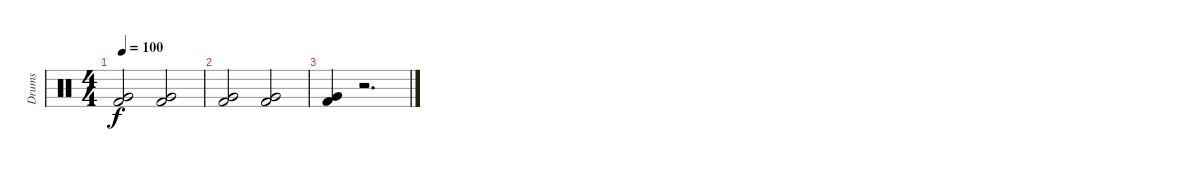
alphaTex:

\track ("Drums" "Drums") {instrument percussion}
\staff {score}
\articulation defaults
\ts (4 4)
\tempo 100
\clef neutral
\ks c
("Kick (hit) 2" "Very Low Tom (hit)").2{dy f} ("Kick (hit) 2" "Very Low Tom (hit)").2 |
("Kick (hit) 2" "Very Low Tom (hit)").2 ("Kick (hit) 2" "Very Low Tom (hit)").2 |
("Kick (hit) 2" "Very Low Tom (hit)").4 r.2{d}
